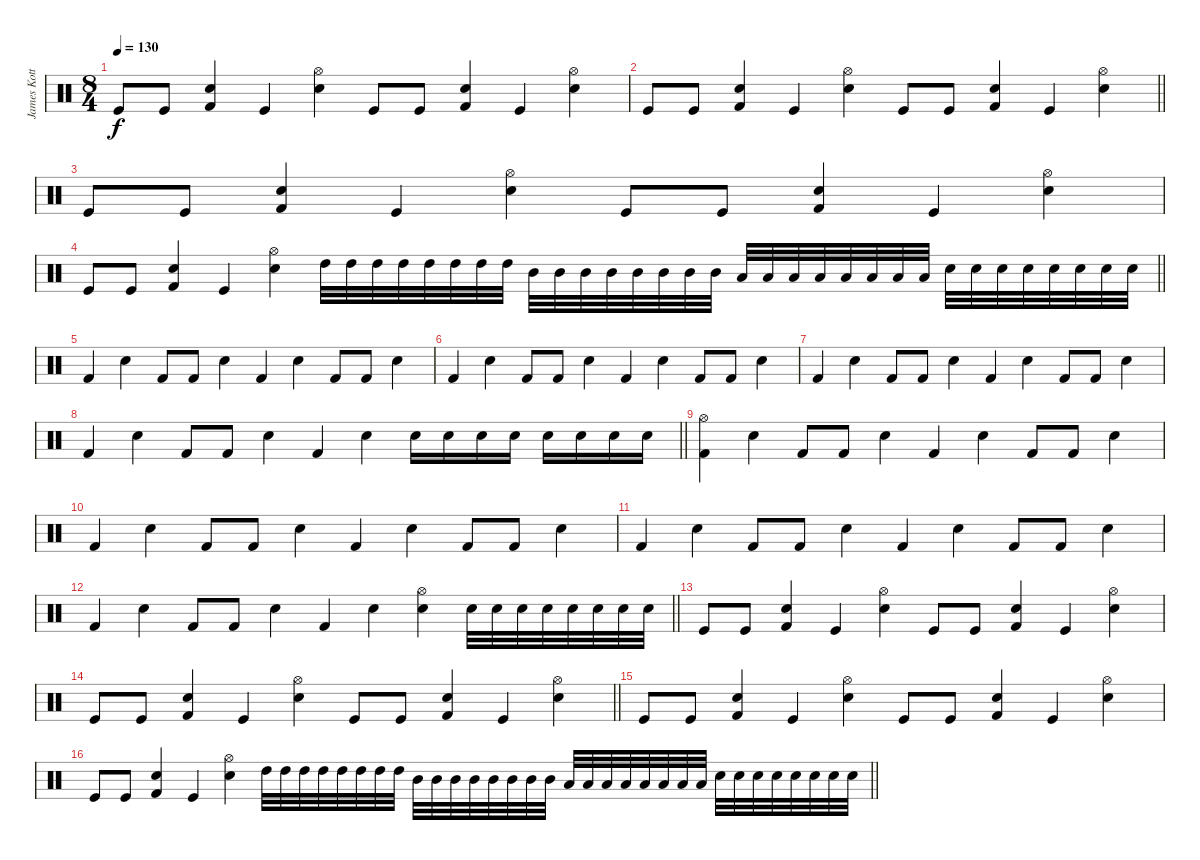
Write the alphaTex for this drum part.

\track ("James Kottak" "James Kott") {instrument percussion}
\staff {score}
\articulation defaults
\ts (8 4)
\section ("" "")
\tempo 130
\clef neutral
\ks c "Kick (hit)".8{dy f} "Kick (hit)".8
("Kick (hit) 2" "Snare (hit) 2").4 "Kick (hit)".4 ("Hi-Hat (open)" "Snare (hit) 2").4 "Kick (hit)".8 "Kick (hit)".8 ("Kick (hit) 2" "Snare (hit) 2").4 "Kick (hit)".4 ("Hi-Hat (open)" "Snare (hit) 2").4 |
\barLineRight lightlight "Kick (hit)".8 "Kick (hit)".8
("Kick (hit) 2" "Snare (hit) 2").4 "Kick (hit)".4 ("Hi-Hat (open)" "Snare (hit) 2").4 "Kick (hit)".8 "Kick (hit)".8 ("Kick (hit) 2" "Snare (hit) 2").4 "Kick (hit)".4 ("Hi-Hat (open)" "Snare (hit) 2").4 |
"Kick (hit)".8 "Kick (hit)".8 ("Kick (hit) 2" "Snare (hit) 2").4 "Kick (hit)".4 ("Hi-Hat (open)" "Snare (hit) 2").4 "Kick (hit)".8 "Kick (hit)".8 ("Kick (hit) 2" "Snare (hit) 2").4 "Kick (hit)".4 ("Hi-Hat (open)" "Snare (hit) 2").4 |
\barLineRight lightlight "Kick (hit)".8 "Kick (hit)".8
("Kick (hit) 2" "Snare (hit) 2").4 "Kick (hit)".4 ("Hi-Hat (open)" "Snare (hit) 2").4 "High Tom (hit)".32 "High Tom (hit)".32 "High Tom (hit)".32 "High Tom (hit)".32 "High Tom (hit)".32 "High Tom (hit)".32 "High Tom (hit)".32 "High Tom (hit)".32 "Mid Tom (hit)".32 "Mid Tom (hit)".32 "Mid Tom (hit)".32 "Mid Tom (hit)".32 "Mid Tom (hit)".32 "Mid Tom (hit)".32 "Mid Tom (hit)".32 "Mid Tom (hit)".32 "Low Tom (hit)".32 "Low Tom (hit)".32 "Low Tom (hit)".32 "Low Tom (hit)".32 "Low Tom (hit)".32 "Low Tom (hit)".32 "Low Tom (hit)".32 "Low Tom (hit)".32 "Snare (hit) 2".32 "Snare (hit) 2".32 "Snare (hit) 2".32 "Snare (hit) 2".32 "Snare (hit) 2".32 "Snare (hit) 2".32 "Snare (hit) 2".32 "Snare (hit) 2".32 |
\section ("" "")
"Kick (hit) 2".4 "Snare (hit) 2".4 "Kick (hit) 2".8 "Kick (hit) 2".8 "Snare (hit) 2".4 "Kick (hit) 2".4 "Snare (hit) 2".4 "Kick (hit) 2".8 "Kick (hit) 2".8 "Snare (hit) 2".4 |
"Kick (hit) 2".4 "Snare (hit) 2".4 "Kick (hit) 2".8 "Kick (hit) 2".8 "Snare (hit) 2".4 "Kick (hit) 2".4 "Snare (hit) 2".4 "Kick (hit) 2".8 "Kick (hit) 2".8 "Snare (hit) 2".4 |
"Kick (hit) 2".4 "Snare (hit) 2".4 "Kick (hit) 2".8 "Kick (hit) 2".8 "Snare (hit) 2".4 "Kick (hit) 2".4 "Snare (hit) 2".4 "Kick (hit) 2".8 "Kick (hit) 2".8 "Snare (hit) 2".4 |
\barLineRight lightlight "Kick (hit) 2".4 "Snare (hit) 2".4 "Kick (hit) 2".8 "Kick (hit) 2".8 "Snare (hit) 2".4 "Kick (hit) 2".4 "Snare (hit) 2".4 "Snare (hit) 2".16 "Snare (hit) 2".16 "Snare (hit) 2".16 "Snare (hit) 2".16 "Snare (hit) 2".16 "Snare (hit) 2".16 "Snare (hit) 2".16 "Snare (hit) 2".16
|
("Hi-Hat (open)" "Kick (hit) 2").4 "Snare (hit) 2".4 "Kick (hit) 2".8 "Kick (hit) 2".8 "Snare (hit) 2".4 "Kick (hit) 2".4 "Snare (hit) 2".4 "Kick (hit) 2".8 "Kick (hit) 2".8 "Snare (hit) 2".4 |
"Kick (hit) 2".4 "Snare (hit) 2".4 "Kick (hit) 2".8 "Kick (hit) 2".8 "Snare (hit) 2".4 "Kick (hit) 2".4 "Snare (hit) 2".4 "Kick (hit) 2".8 "Kick (hit) 2".8 "Snare (hit) 2".4 |
"Kick (hit) 2".4 "Snare (hit) 2".4 "Kick (hit) 2".8 "Kick (hit) 2".8 "Snare (hit) 2".4 "Kick (hit) 2".4 "Snare (hit) 2".4 "Kick (hit) 2".8 "Kick (hit) 2".8 "Snare (hit) 2".4 |
\barLineRight lightlight "Kick (hit) 2".4 "Snare (hit) 2".4 "Kick (hit) 2".8 "Kick (hit) 2".8 "Snare (hit) 2".4 "Kick (hit) 2".4 "Snare (hit) 2".4
("Hi-Hat (open)" "Snare (hit) 2").4 "Snare (hit) 2".32 "Snare (hit) 2".32 "Snare (hit) 2".32 "Snare (hit) 2".32 "Snare (hit) 2".32 "Snare (hit) 2".32 "Snare (hit) 2".32 "Snare (hit) 2".32 |
\section ("" "")
"Kick (hit)".8 "Kick (hit)".8 ("Kick (hit) 2" "Snare (hit) 2").4 "Kick (hit)".4 ("Hi-Hat (open)" "Snare (hit) 2").4 "Kick (hit)".8 "Kick (hit)".8 ("Kick (hit) 2" "Snare (hit) 2").4 "Kick (hit)".4 ("Hi-Hat (open)" "Snare (hit) 2").4 |
\barLineRight lightlight "Kick (hit)".8 "Kick (hit)".8
("Kick (hit) 2" "Snare (hit) 2").4 "Kick (hit)".4 ("Hi-Hat (open)" "Snare (hit) 2").4 "Kick (hit)".8 "Kick (hit)".8 ("Kick (hit) 2" "Snare (hit) 2").4 "Kick (hit)".4 ("Hi-Hat (open)" "Snare (hit) 2").4 |
"Kick (hit)".8 "Kick (hit)".8 ("Kick (hit) 2" "Snare (hit) 2").4 "Kick (hit)".4 ("Hi-Hat (open)" "Snare (hit) 2").4 "Kick (hit)".8 "Kick (hit)".8 ("Kick (hit) 2" "Snare (hit) 2").4 "Kick (hit)".4 ("Hi-Hat (open)" "Snare (hit) 2").4 |
\barLineRight lightlight "Kick (hit)".8 "Kick (hit)".8
("Kick (hit) 2" "Snare (hit) 2").4 "Kick (hit)".4 ("Hi-Hat (open)" "Snare (hit) 2").4 "High Tom (hit)".32 "High Tom (hit)".32 "High Tom (hit)".32 "High Tom (hit)".32 "High Tom (hit)".32 "High Tom (hit)".32 "High Tom (hit)".32 "High Tom (hit)".32 "Mid Tom (hit)".32 "Mid Tom (hit)".32 "Mid Tom (hit)".32 "Mid Tom (hit)".32 "Mid Tom (hit)".32 "Mid Tom (hit)".32 "Mid Tom (hit)".32 "Mid Tom (hit)".32 "Low Tom (hit)".32 "Low Tom (hit)".32 "Low Tom (hit)".32 "Low Tom (hit)".32 "Low Tom (hit)".32 "Low Tom (hit)".32 "Low Tom (hit)".32 "Low Tom (hit)".32 "Snare (hit) 2".32 "Snare (hit) 2".32 "Snare (hit) 2".32 "Snare (hit) 2".32 "Snare (hit) 2".32 "Snare (hit) 2".32 "Snare (hit) 2".32 "Snare (hit) 2".32
